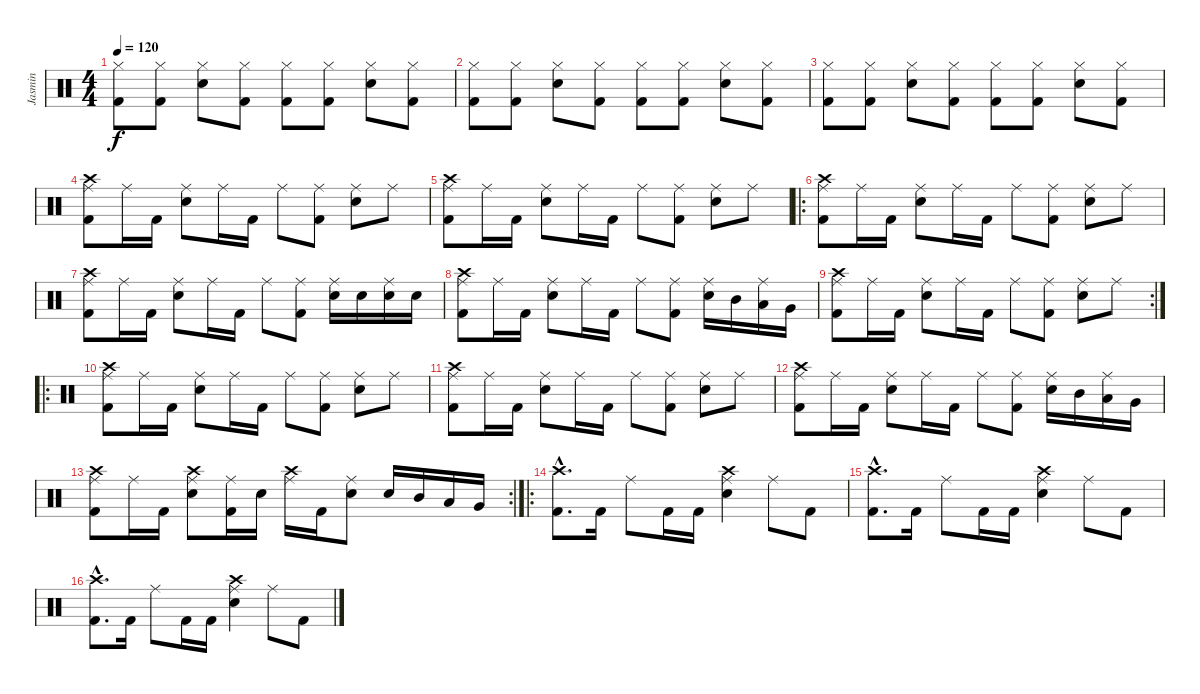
\track ("Jasmin" "Jasmin") {instrument percussion}
\staff {score}
\articulation defaults
\ts (4 4)
\tempo 120
\clef neutral
\ks c
("Hi-Hat (closed)" "Kick (hit) 2").8{dy f} ("Hi-Hat (closed)" "Kick (hit) 2").8 ("Hi-Hat (closed)" "Electric Snare (hit)").8 ("Hi-Hat (closed)" "Kick (hit) 2").8 ("Hi-Hat (closed)" "Kick (hit) 2").8 ("Hi-Hat (closed)" "Kick (hit) 2").8 ("Hi-Hat (closed)" "Electric Snare (hit)").8 ("Hi-Hat (closed)" "Kick (hit) 2").8 |
("Hi-Hat (closed)" "Kick (hit) 2").8 ("Hi-Hat (closed)" "Kick (hit) 2").8 ("Hi-Hat (closed)" "Electric Snare (hit)").8 ("Hi-Hat (closed)" "Kick (hit) 2").8 ("Hi-Hat (closed)" "Kick (hit) 2").8 ("Hi-Hat (closed)" "Kick (hit) 2").8 ("Hi-Hat (closed)" "Electric Snare (hit)").8 ("Hi-Hat (closed)" "Kick (hit) 2").8 |
("Hi-Hat (closed)" "Kick (hit) 2").8 ("Hi-Hat (closed)" "Kick (hit) 2").8 ("Hi-Hat (closed)" "Electric Snare (hit)").8 ("Hi-Hat (closed)" "Kick (hit) 2").8 ("Hi-Hat (closed)" "Kick (hit) 2").8 ("Hi-Hat (closed)" "Kick (hit) 2").8 ("Hi-Hat (closed)" "Electric Snare (hit)").8 ("Hi-Hat (closed)" "Kick (hit) 2").8 |
("Crash high (hit)" "Ride (middle)" "Kick (hit) 2").8 "Ride (middle)".16 "Kick (hit) 2".16 ("Ride (middle)" "Electric Snare (hit)").8 "Ride (middle)".16 "Kick (hit) 2".16 "Ride (middle)".8 ("Ride (middle)" "Kick (hit) 2").8 ("Ride (middle)" "Electric Snare (hit)").8 "Ride (middle)".8 |
("Crash high (hit)" "Ride (middle)" "Kick (hit) 2").8 "Ride (middle)".16 "Kick (hit) 2".16 ("Ride (middle)" "Electric Snare (hit)").8 "Ride (middle)".16 "Kick (hit) 2".16 "Ride (middle)".8 ("Ride (middle)" "Kick (hit) 2").8 ("Ride (middle)" "Electric Snare (hit)").8 "Ride (middle)".8 |
\ro
("Crash high (hit)" "Ride (middle)" "Kick (hit) 2").8 "Ride (middle)".16 "Kick (hit) 2".16 ("Ride (middle)" "Electric Snare (hit)").8 "Ride (middle)".16 "Kick (hit) 2".16 "Ride (middle)".8 ("Ride (middle)" "Kick (hit) 2").8 ("Ride (middle)" "Electric Snare (hit)").8 "Ride (middle)".8 |
("Crash high (hit)" "Ride (middle)" "Kick (hit) 2").8 "Ride (middle)".16 "Kick (hit) 2".16 ("Ride (middle)" "Electric Snare (hit)").8 "Ride (middle)".16 "Kick (hit) 2".16 "Ride (middle)".8 ("Ride (middle)" "Kick (hit) 2").8 ("Ride (middle)" "Electric Snare (hit)").16 "Electric Snare (hit)".16 ("Ride (middle)" "Electric Snare (hit)").16 "Electric Snare (hit)".16 |
("Crash high (hit)" "Ride (middle)" "Kick (hit) 2").8 "Ride (middle)".16 "Kick (hit) 2".16 ("Ride (middle)" "Electric Snare (hit)").8 "Ride (middle)".16 "Kick (hit) 2".16 "Ride (middle)".8 ("Ride (middle)" "Kick (hit) 2").8 ("Ride (middle)" "Electric Snare (hit)").16 "Mid Tom (hit)".16 ("Ride (middle)" "Low Tom (hit)").16 "Very Low Tom (hit)".16 |
\rc 2
("Crash high (hit)" "Ride (middle)" "Kick (hit) 2").8 "Ride (middle)".16 "Kick (hit) 2".16 ("Ride (middle)" "Electric Snare (hit)").8 "Ride (middle)".16 "Kick (hit) 2".16 "Ride (middle)".8 ("Ride (middle)" "Kick (hit) 2").8 ("Ride (middle)" "Electric Snare (hit)").8 "Ride (middle)".8 |
\ro
("Crash high (hit)" "Ride (middle)" "Kick (hit) 2").8 "Ride (middle)".16 "Kick (hit) 2".16 ("Ride (middle)" "Electric Snare (hit)").8 "Ride (middle)".16 "Kick (hit) 2".16 "Ride (middle)".8 ("Ride (middle)" "Kick (hit) 2").8 ("Ride (middle)" "Electric Snare (hit)").8 "Ride (middle)".8 |
("Crash high (hit)" "Ride (middle)" "Kick (hit) 2").8 "Ride (middle)".16 "Kick (hit) 2".16 ("Ride (middle)" "Electric Snare (hit)").8 "Ride (middle)".16 "Kick (hit) 2".16 "Ride (middle)".8 ("Ride (middle)" "Kick (hit) 2").8 ("Ride (middle)" "Electric Snare (hit)").8 "Ride (middle)".8 |
("Crash high (hit)" "Ride (middle)" "Kick (hit) 2").8 "Ride (middle)".16 "Kick (hit) 2".16 ("Ride (middle)" "Electric Snare (hit)").8 "Ride (middle)".16 "Kick (hit) 2".16 "Ride (middle)".8 ("Ride (middle)" "Kick (hit) 2").8 ("Ride (middle)" "Electric Snare (hit)").16 "Mid Tom (hit)".16 ("Ride (middle)" "Low Tom (hit)").16 "Very Low Tom (hit)".16 |
\rc 2
("Crash high (hit)" "Ride (middle)" "Kick (hit) 2").8 "Ride (middle)".16 "Kick (hit) 2".16 ("Crash high (hit)" "Ride (middle)" "Electric Snare (hit)").8 ("Ride (middle)" "Kick (hit) 2").16 "Electric Snare (hit)".16 ("Crash high (hit)" "Ride (middle)").16 "Kick (hit) 2".16 ("Ride (middle)" "Electric Snare (hit)").8 "Electric Snare (hit)".16 "Mid Tom (hit)".16 "Low Tom (hit)".16 "Very Low Tom (hit)".16 |
\ro
("Crash high (hit)"{hac} "Kick (hit) 2"{hac}).8{d} "Kick (hit) 2".16 "Ride (middle)".8 "Kick (hit) 2".16 "Kick (hit) 2".16 ("Crash high (hit)" "Ride (middle)" "Electric Snare (hit)").4 "Ride (middle)".8 "Kick (hit) 2".8 |
("Crash high (hit)"{hac} "Kick (hit) 2"{hac}).8{d} "Kick (hit) 2".16 "Ride (middle)".8 "Kick (hit) 2".16 "Kick (hit) 2".16 ("Crash high (hit)" "Ride (middle)" "Electric Snare (hit)").4 "Ride (middle)".8 "Kick (hit) 2".8 |
("Crash high (hit)"{hac} "Kick (hit) 2"{hac}).8{d} "Kick (hit) 2".16 "Ride (middle)".8 "Kick (hit) 2".16 "Kick (hit) 2".16 ("Crash high (hit)" "Ride (middle)" "Electric Snare (hit)").4 "Ride (middle)".8 "Kick (hit) 2".8
